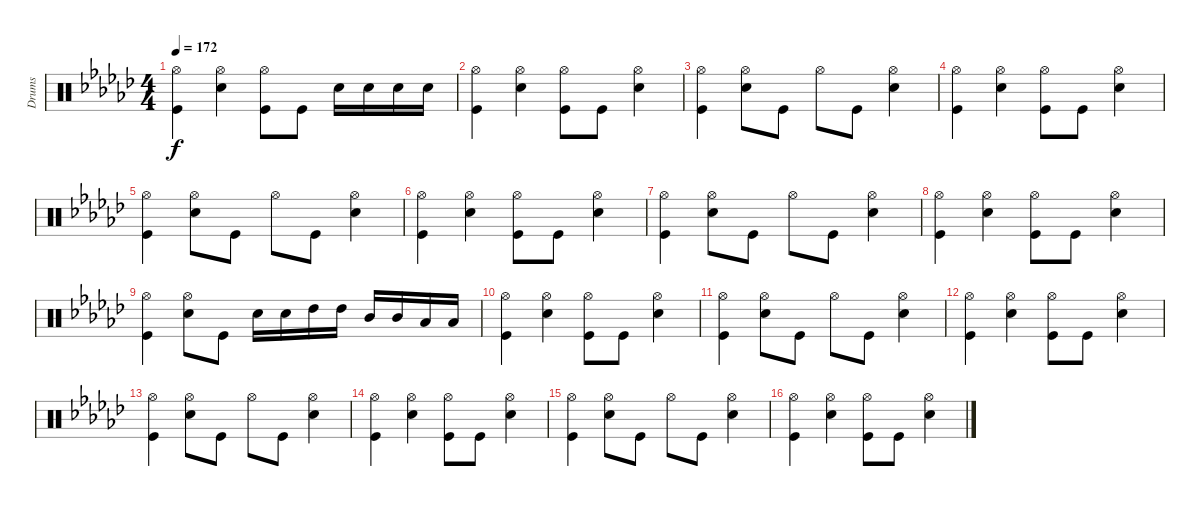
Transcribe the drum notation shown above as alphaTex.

\track ("Drums" "Drums") {instrument percussion}
\staff {score}
\articulation defaults
\ts (4 4)
\tempo 172
\clef neutral
\ks ebminor
("Hi-Hat (open)" "Kick (hit)").4{dy f} ("Hi-Hat (open)" "Snare (hit) 2").4 ("Hi-Hat (open)" "Kick (hit)").8 "Kick (hit)".8 "Snare (hit) 2".16 "Snare (hit) 2".16 "Snare (hit) 2".16 "Snare (hit) 2".16 |
("Hi-Hat (open)" "Kick (hit)").4 ("Hi-Hat (open)" "Snare (hit) 2").4 ("Hi-Hat (open)" "Kick (hit)").8 "Kick (hit)".8 ("Hi-Hat (open)" "Snare (hit) 2").4 |
("Hi-Hat (open)" "Kick (hit)").4 ("Hi-Hat (open)" "Snare (hit) 2").8 "Kick (hit)".8 "Hi-Hat (open)".8 "Kick (hit)".8 ("Hi-Hat (open)" "Snare (hit) 2").4 |
("Hi-Hat (open)" "Kick (hit)").4 ("Hi-Hat (open)" "Snare (hit) 2").4 ("Hi-Hat (open)" "Kick (hit)").8 "Kick (hit)".8 ("Hi-Hat (open)" "Snare (hit) 2").4 |
("Hi-Hat (open)" "Kick (hit)").4 ("Hi-Hat (open)" "Snare (hit) 2").8 "Kick (hit)".8 "Hi-Hat (open)".8 "Kick (hit)".8 ("Hi-Hat (open)" "Snare (hit) 2").4 |
("Hi-Hat (open)" "Kick (hit)").4 ("Hi-Hat (open)" "Snare (hit) 2").4 ("Hi-Hat (open)" "Kick (hit)").8 "Kick (hit)".8 ("Hi-Hat (open)" "Snare (hit) 2").4 |
("Hi-Hat (open)" "Kick (hit)").4 ("Hi-Hat (open)" "Snare (hit) 2").8 "Kick (hit)".8 "Hi-Hat (open)".8 "Kick (hit)".8 ("Hi-Hat (open)" "Snare (hit) 2").4 |
("Hi-Hat (open)" "Kick (hit)").4 ("Hi-Hat (open)" "Snare (hit) 2").4 ("Hi-Hat (open)" "Kick (hit)").8 "Kick (hit)".8 ("Hi-Hat (open)" "Snare (hit) 2").4 |
("Hi-Hat (open)" "Kick (hit)").4 ("Hi-Hat (open)" "Snare (hit) 2").8 "Kick (hit)".8 "Snare (hit) 2".16 "Snare (hit) 2".16 "High Tom (hit)".16 "High Tom (hit)".16 "Mid Tom (hit)".16 "Mid Tom (hit)".16 "Low Tom (hit)".16 "Low Tom (hit)".16 |
("Hi-Hat (open)" "Kick (hit)").4 ("Hi-Hat (open)" "Snare (hit) 2").4 ("Hi-Hat (open)" "Kick (hit)").8 "Kick (hit)".8 ("Hi-Hat (open)" "Snare (hit) 2").4 |
("Hi-Hat (open)" "Kick (hit)").4 ("Hi-Hat (open)" "Snare (hit) 2").8 "Kick (hit)".8 "Hi-Hat (open)".8 "Kick (hit)".8 ("Hi-Hat (open)" "Snare (hit) 2").4 |
("Hi-Hat (open)" "Kick (hit)").4 ("Hi-Hat (open)" "Snare (hit) 2").4 ("Hi-Hat (open)" "Kick (hit)").8 "Kick (hit)".8 ("Hi-Hat (open)" "Snare (hit) 2").4 |
("Hi-Hat (open)" "Kick (hit)").4 ("Hi-Hat (open)" "Snare (hit) 2").8 "Kick (hit)".8 "Hi-Hat (open)".8 "Kick (hit)".8 ("Hi-Hat (open)" "Snare (hit) 2").4 |
("Hi-Hat (open)" "Kick (hit)").4 ("Hi-Hat (open)" "Snare (hit) 2").4 ("Hi-Hat (open)" "Kick (hit)").8 "Kick (hit)".8 ("Hi-Hat (open)" "Snare (hit) 2").4 |
("Hi-Hat (open)" "Kick (hit)").4 ("Hi-Hat (open)" "Snare (hit) 2").8 "Kick (hit)".8 "Hi-Hat (open)".8 "Kick (hit)".8 ("Hi-Hat (open)" "Snare (hit) 2").4 |
("Hi-Hat (open)" "Kick (hit)").4 ("Hi-Hat (open)" "Snare (hit) 2").4 ("Hi-Hat (open)" "Kick (hit)").8 "Kick (hit)".8 ("Hi-Hat (open)" "Snare (hit) 2").4
